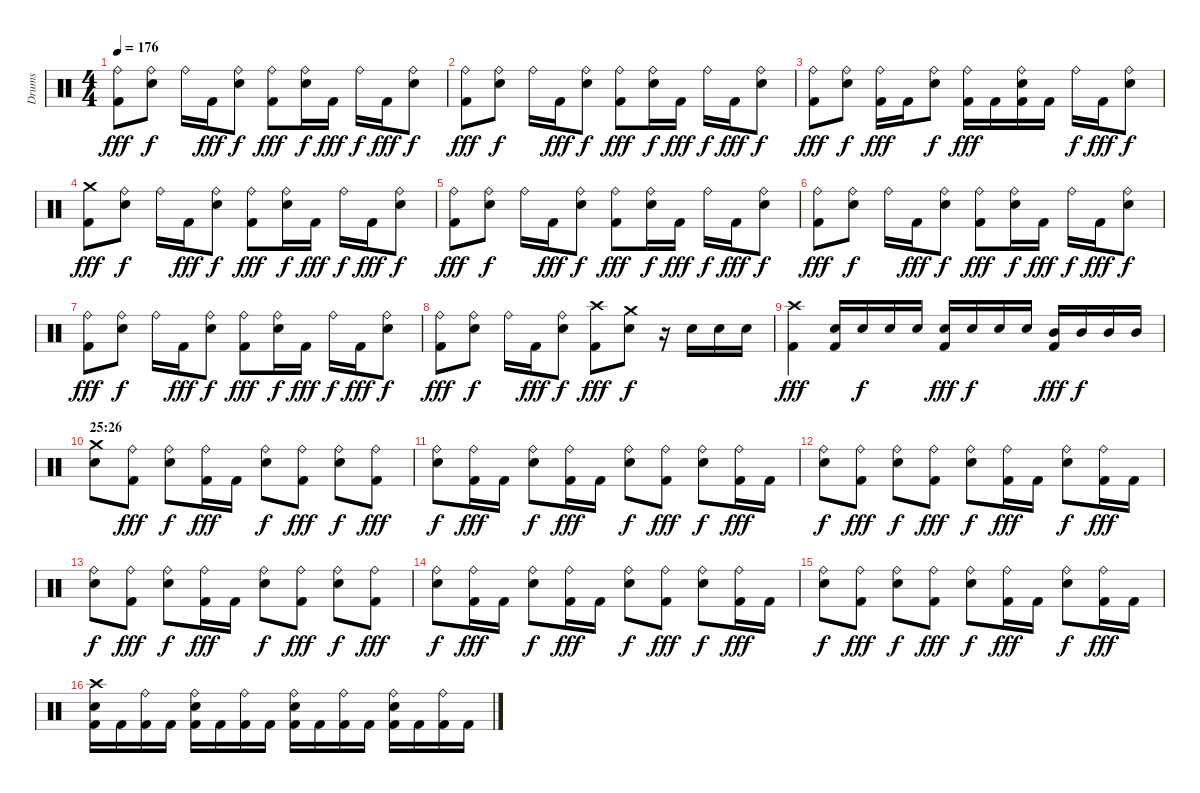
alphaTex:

\track ("Drums" "Drums") {instrument percussion}
\staff {score}
\articulation defaults
\ts (4 4)
\tempo 176
\clef neutral
\ks c
("Ride (bell)" "Kick (hit) 2").8{dy fff} ("Ride (bell)" "Snare (hit) 2").8{dy f} "Ride (bell)".16 "Kick (hit) 2".16{dy fff} ("Ride (bell)" "Snare (hit) 2").8{dy f} ("Ride (bell)" "Kick (hit) 2").8{dy fff} ("Ride (bell)" "Snare (hit) 2").16{dy f} "Kick (hit) 2".16{dy fff} "Ride (bell)".16{dy f} "Kick (hit) 2".16{dy fff} ("Ride (bell)" "Snare (hit) 2").8{dy f} |
("Ride (bell)" "Kick (hit) 2").8{dy fff} ("Ride (bell)" "Snare (hit) 2").8{dy f} "Ride (bell)".16 "Kick (hit) 2".16{dy fff} ("Ride (bell)" "Snare (hit) 2").8{dy f} ("Ride (bell)" "Kick (hit) 2").8{dy fff} ("Ride (bell)" "Snare (hit) 2").16{dy f} "Kick (hit) 2".16{dy fff} "Ride (bell)".16{dy f} "Kick (hit) 2".16{dy fff} ("Ride (bell)" "Snare (hit) 2").8{dy f} |
("Ride (bell)" "Kick (hit) 2").8{dy fff} ("Ride (bell)" "Snare (hit) 2").8{dy f} ("Ride (bell)" "Kick (hit) 2").16{dy fff} "Kick (hit) 2".16 ("Ride (bell)" "Snare (hit) 2").8{dy f} ("Ride (bell)" "Kick (hit) 2").16{dy fff} "Kick (hit) 2".16 ("Ride (bell)" "Snare (hit) 2" "Kick (hit) 2").16 "Kick (hit) 2".16 "Ride (bell)".16{dy f} "Kick (hit) 2".16{dy fff} ("Ride (bell)" "Snare (hit) 2").8{dy f} |
("Crash medium (hit)" "Kick (hit) 2").8{dy fff} ("Ride (bell)" "Snare (hit) 2").8{dy f} "Ride (bell)".16 "Kick (hit) 2".16{dy fff} ("Ride (bell)" "Snare (hit) 2").8{dy f} ("Ride (bell)" "Kick (hit) 2").8{dy fff} ("Ride (bell)" "Snare (hit) 2").16{dy f} "Kick (hit) 2".16{dy fff} "Ride (bell)".16{dy f} "Kick (hit) 2".16{dy fff} ("Ride (bell)" "Snare (hit) 2").8{dy f} |
("Ride (bell)" "Kick (hit) 2").8{dy fff} ("Ride (bell)" "Snare (hit) 2").8{dy f} "Ride (bell)".16 "Kick (hit) 2".16{dy fff} ("Ride (bell)" "Snare (hit) 2").8{dy f} ("Ride (bell)" "Kick (hit) 2").8{dy fff} ("Ride (bell)" "Snare (hit) 2").16{dy f} "Kick (hit) 2".16{dy fff} "Ride (bell)".16{dy f} "Kick (hit) 2".16{dy fff} ("Ride (bell)" "Snare (hit) 2").8{dy f} |
("Ride (bell)" "Kick (hit) 2").8{dy fff} ("Ride (bell)" "Snare (hit) 2").8{dy f} "Ride (bell)".16 "Kick (hit) 2".16{dy fff} ("Ride (bell)" "Snare (hit) 2").8{dy f} ("Ride (bell)" "Kick (hit) 2").8{dy fff} ("Ride (bell)" "Snare (hit) 2").16{dy f} "Kick (hit) 2".16{dy fff} "Ride (bell)".16{dy f} "Kick (hit) 2".16{dy fff} ("Ride (bell)" "Snare (hit) 2").8{dy f} |
("Ride (bell)" "Kick (hit) 2").8{dy fff} ("Ride (bell)" "Snare (hit) 2").8{dy f} "Ride (bell)".16 "Kick (hit) 2".16{dy fff} ("Ride (bell)" "Snare (hit) 2").8{dy f} ("Ride (bell)" "Kick (hit) 2").8{dy fff} ("Ride (bell)" "Snare (hit) 2").16{dy f} "Kick (hit) 2".16{dy fff} "Ride (bell)".16{dy f} "Kick (hit) 2".16{dy fff} ("Ride (bell)" "Snare (hit) 2").8{dy f} |
("Ride (bell)" "Kick (hit) 2").8{dy fff} ("Ride (bell)" "Snare (hit) 2").8{dy f} "Ride (bell)".16 "Kick (hit) 2".16{dy fff} ("Ride (bell)" "Snare (hit) 2").8{dy f} ("Crash high (hit)" "Kick (hit) 2").8{dy fff} ("Crash medium (hit)" "Snare (hit) 2").8{dy f} r.16 "Snare (hit) 2".16 "Snare (hit) 2".16 "Snare (hit) 2".16 |
("Crash high (hit)" "Kick (hit) 2").4{dy fff} ("Snare (hit) 2" "Kick (hit) 2").16 "Snare (hit) 2".16{dy f} "Snare (hit) 2".16 "Snare (hit) 2".16 ("Snare (hit) 2" "Kick (hit) 2").16{dy fff} "Snare (hit) 2".16{dy f} "Snare (hit) 2".16 "Snare (hit) 2".16 ("Mid Tom (hit)" "Kick (hit) 2").16{dy fff} "Mid Tom (hit)".16{dy f} "Mid Tom (hit)".16 "Mid Tom (hit)".16 |
\section ("" "25:26")
("Crash medium (hit)" "Snare (hit) 2").8 ("Ride (bell)" "Kick (hit) 2").8{dy fff} ("Ride (bell)" "Snare (hit) 2").8{dy f} ("Ride (bell)" "Kick (hit) 2").16{dy fff} "Kick (hit) 2".16 ("Ride (bell)" "Snare (hit) 2").8{dy f} ("Ride (bell)" "Kick (hit) 2").8{dy fff} ("Ride (bell)" "Snare (hit) 2").8{dy f} ("Ride (bell)" "Kick (hit) 2").8{dy fff} |
("Ride (bell)" "Snare (hit) 2").8{dy f} ("Ride (bell)" "Kick (hit) 2").16{dy fff} "Kick (hit) 2".16 ("Ride (bell)" "Snare (hit) 2").8{dy f} ("Ride (bell)" "Kick (hit) 2").16{dy fff} "Kick (hit) 2".16 ("Ride (bell)" "Snare (hit) 2").8{dy f} ("Ride (bell)" "Kick (hit) 2").8{dy fff} ("Ride (bell)" "Snare (hit) 2").8{dy f} ("Ride (bell)" "Kick (hit) 2").16{dy fff} "Kick (hit) 2".16 |
("Ride (bell)" "Snare (hit) 2").8{dy f} ("Ride (bell)" "Kick (hit) 2").8{dy fff} ("Ride (bell)" "Snare (hit) 2").8{dy f} ("Ride (bell)" "Kick (hit) 2").8{dy fff} ("Ride (bell)" "Snare (hit) 2").8{dy f} ("Ride (bell)" "Kick (hit) 2").16{dy fff} "Kick (hit) 2".16 ("Ride (bell)" "Snare (hit) 2").8{dy f} ("Ride (bell)" "Kick (hit) 2").16{dy fff} "Kick (hit) 2".16 |
("Ride (bell)" "Snare (hit) 2").8{dy f} ("Ride (bell)" "Kick (hit) 2").8{dy fff} ("Ride (bell)" "Snare (hit) 2").8{dy f} ("Ride (bell)" "Kick (hit) 2").16{dy fff} "Kick (hit) 2".16 ("Ride (bell)" "Snare (hit) 2").8{dy f} ("Ride (bell)" "Kick (hit) 2").8{dy fff} ("Ride (bell)" "Snare (hit) 2").8{dy f} ("Ride (bell)" "Kick (hit) 2").8{dy fff} |
("Ride (bell)" "Snare (hit) 2").8{dy f} ("Ride (bell)" "Kick (hit) 2").16{dy fff} "Kick (hit) 2".16 ("Ride (bell)" "Snare (hit) 2").8{dy f} ("Ride (bell)" "Kick (hit) 2").16{dy fff} "Kick (hit) 2".16 ("Ride (bell)" "Snare (hit) 2").8{dy f} ("Ride (bell)" "Kick (hit) 2").8{dy fff} ("Ride (bell)" "Snare (hit) 2").8{dy f} ("Ride (bell)" "Kick (hit) 2").16{dy fff} "Kick (hit) 2".16 |
("Ride (bell)" "Snare (hit) 2").8{dy f} ("Ride (bell)" "Kick (hit) 2").8{dy fff} ("Ride (bell)" "Snare (hit) 2").8{dy f} ("Ride (bell)" "Kick (hit) 2").8{dy fff} ("Ride (bell)" "Snare (hit) 2").8{dy f} ("Ride (bell)" "Kick (hit) 2").16{dy fff} "Kick (hit) 2".16 ("Ride (bell)" "Snare (hit) 2").8{dy f} ("Ride (bell)" "Kick (hit) 2").16{dy fff} "Kick (hit) 2".16 |
("Crash high (hit)" "Snare (hit) 2" "Kick (hit) 2").16 "Kick (hit) 2".16 ("Ride (bell)" "Kick (hit) 2").16 "Kick (hit) 2".16 ("Ride (bell)" "Snare (hit) 2" "Kick (hit) 2").16 "Kick (hit) 2".16 ("Ride (bell)" "Kick (hit) 2").16 "Kick (hit) 2".16 ("Ride (bell)" "Snare (hit) 2" "Kick (hit) 2").16 "Kick (hit) 2".16 ("Ride (bell)" "Kick (hit) 2").16 "Kick (hit) 2".16 ("Ride (bell)" "Snare (hit) 2" "Kick (hit) 2").16 "Kick (hit) 2".16 ("Ride (bell)" "Kick (hit) 2").16 "Kick (hit) 2".16
